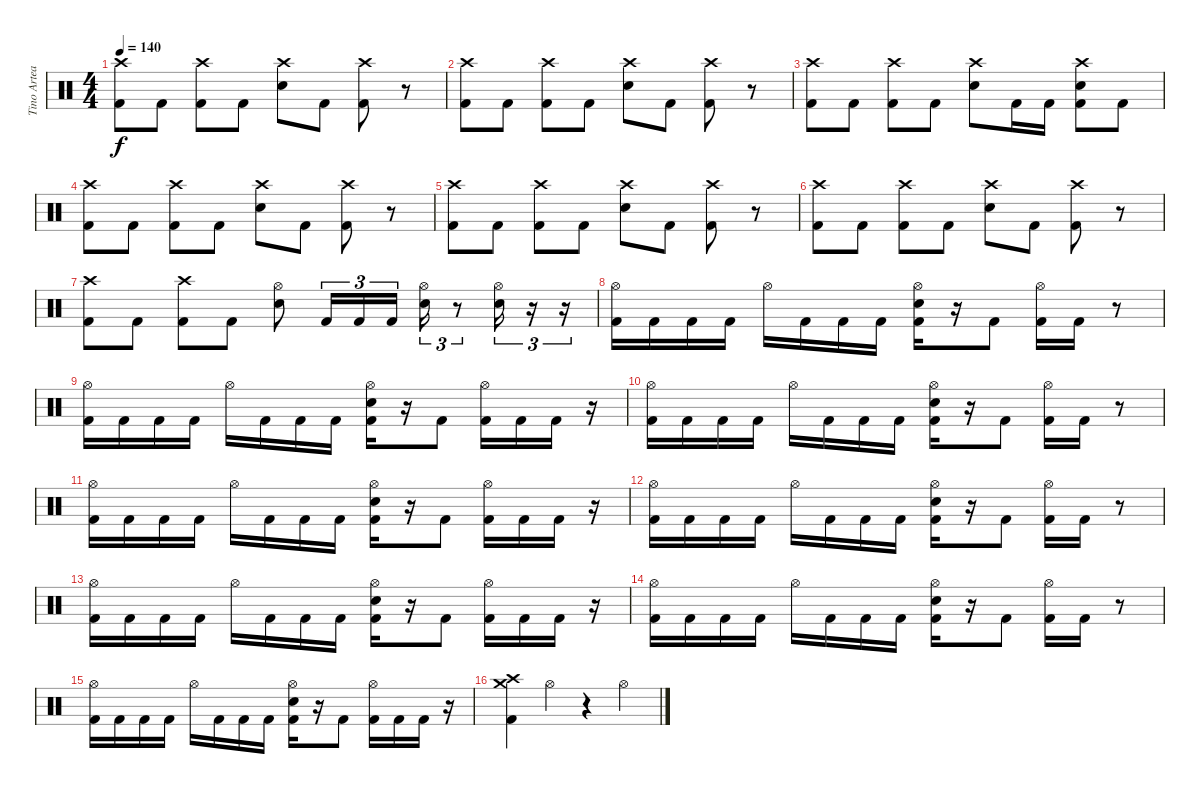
\track ("Tino Arteaga" "Tino Artea") {instrument percussion}
\staff {score}
\articulation defaults
\ts (4 4)
\tempo 140
\clef neutral
\ks c
("Crash high (hit)" "Kick (hit) 2").8{dy f} "Kick (hit) 2".8 ("Crash high (hit)" "Kick (hit) 2").8 "Kick (hit) 2".8 ("Crash high (hit)" "Electric Snare (hit)").8 "Kick (hit) 2".8 ("Crash high (hit)" "Kick (hit) 2").8 r.8 |
("Crash high (hit)" "Kick (hit) 2").8 "Kick (hit) 2".8 ("Crash high (hit)" "Kick (hit) 2").8 "Kick (hit) 2".8 ("Crash high (hit)" "Electric Snare (hit)").8 "Kick (hit) 2".8 ("Crash high (hit)" "Kick (hit) 2").8 r.8 |
("Crash high (hit)" "Kick (hit) 2").8 "Kick (hit) 2".8 ("Crash high (hit)" "Kick (hit) 2").8 "Kick (hit) 2".8 ("Crash high (hit)" "Electric Snare (hit)").8 "Kick (hit) 2".16 "Kick (hit) 2".16 ("Crash high (hit)" "Electric Snare (hit)" "Kick (hit) 2").8 "Kick (hit) 2".8 |
("Crash high (hit)" "Kick (hit) 2").8 "Kick (hit) 2".8 ("Crash high (hit)" "Kick (hit) 2").8 "Kick (hit) 2".8 ("Crash high (hit)" "Electric Snare (hit)").8 "Kick (hit) 2".8 ("Crash high (hit)" "Kick (hit) 2").8 r.8 |
("Crash high (hit)" "Kick (hit) 2").8 "Kick (hit) 2".8 ("Crash high (hit)" "Kick (hit) 2").8 "Kick (hit) 2".8 ("Crash high (hit)" "Electric Snare (hit)").8 "Kick (hit) 2".8 ("Crash high (hit)" "Kick (hit) 2").8 r.8 |
("Crash high (hit)" "Kick (hit) 2").8 "Kick (hit) 2".8 ("Crash high (hit)" "Kick (hit) 2").8 "Kick (hit) 2".8 ("Crash high (hit)" "Electric Snare (hit)").8 "Kick (hit) 2".8 ("Crash high (hit)" "Kick (hit) 2").8 r.8 |
("Crash high (hit)" "Kick (hit) 2").8 "Kick (hit) 2".8 ("Crash high (hit)" "Kick (hit) 2").8 "Kick (hit) 2".8 ("Hi-Hat (open)" "Electric Snare (hit)").8 "Kick (hit) 2".16{tu (3 2)} "Kick (hit) 2".16{tu (3 2)} "Kick (hit) 2".16{tu (3 2)} ("Hi-Hat (open)" "Electric Snare (hit)").16{tu (3 2)} r.8{tu (3 2)} ("Hi-Hat (open)" "Electric Snare (hit)").16{tu (3 2)} r.16{tu (3 2)} r.16{tu (3 2)} |
("Hi-Hat (open)" "Kick (hit) 2").16 "Kick (hit) 2".16 "Kick (hit) 2".16 "Kick (hit) 2".16 "Hi-Hat (open)".16 "Kick (hit) 2".16 "Kick (hit) 2".16 "Kick (hit) 2".16 ("Hi-Hat (open)" "Electric Snare (hit)" "Kick (hit) 2").16 r.16 "Kick (hit) 2".8 ("Hi-Hat (open)" "Kick (hit) 2").16 "Kick (hit) 2".16 r.8 |
("Hi-Hat (open)" "Kick (hit) 2").16 "Kick (hit) 2".16 "Kick (hit) 2".16 "Kick (hit) 2".16 "Hi-Hat (open)".16 "Kick (hit) 2".16 "Kick (hit) 2".16 "Kick (hit) 2".16 ("Hi-Hat (open)" "Electric Snare (hit)" "Kick (hit) 2").16 r.16 "Kick (hit) 2".8 ("Hi-Hat (open)" "Kick (hit) 2").16 "Kick (hit) 2".16 "Kick (hit) 2".16 r.16 |
("Hi-Hat (open)" "Kick (hit) 2").16 "Kick (hit) 2".16 "Kick (hit) 2".16 "Kick (hit) 2".16 "Hi-Hat (open)".16 "Kick (hit) 2".16 "Kick (hit) 2".16 "Kick (hit) 2".16 ("Hi-Hat (open)" "Electric Snare (hit)" "Kick (hit) 2").16 r.16 "Kick (hit) 2".8 ("Hi-Hat (open)" "Kick (hit) 2").16 "Kick (hit) 2".16 r.8 |
("Hi-Hat (open)" "Kick (hit) 2").16 "Kick (hit) 2".16 "Kick (hit) 2".16 "Kick (hit) 2".16 "Hi-Hat (open)".16 "Kick (hit) 2".16 "Kick (hit) 2".16 "Kick (hit) 2".16 ("Hi-Hat (open)" "Electric Snare (hit)" "Kick (hit) 2").16 r.16 "Kick (hit) 2".8 ("Hi-Hat (open)" "Kick (hit) 2").16 "Kick (hit) 2".16 "Kick (hit) 2".16 r.16 |
("Hi-Hat (open)" "Kick (hit) 2").16 "Kick (hit) 2".16 "Kick (hit) 2".16 "Kick (hit) 2".16 "Hi-Hat (open)".16 "Kick (hit) 2".16 "Kick (hit) 2".16 "Kick (hit) 2".16 ("Hi-Hat (open)" "Electric Snare (hit)" "Kick (hit) 2").16 r.16 "Kick (hit) 2".8 ("Hi-Hat (open)" "Kick (hit) 2").16 "Kick (hit) 2".16 r.8 |
("Hi-Hat (open)" "Kick (hit) 2").16 "Kick (hit) 2".16 "Kick (hit) 2".16 "Kick (hit) 2".16 "Hi-Hat (open)".16 "Kick (hit) 2".16 "Kick (hit) 2".16 "Kick (hit) 2".16 ("Hi-Hat (open)" "Electric Snare (hit)" "Kick (hit) 2").16 r.16 "Kick (hit) 2".8 ("Hi-Hat (open)" "Kick (hit) 2").16 "Kick (hit) 2".16 "Kick (hit) 2".16 r.16 |
("Hi-Hat (open)" "Kick (hit) 2").16 "Kick (hit) 2".16 "Kick (hit) 2".16 "Kick (hit) 2".16 "Hi-Hat (open)".16 "Kick (hit) 2".16 "Kick (hit) 2".16 "Kick (hit) 2".16 ("Hi-Hat (open)" "Electric Snare (hit)" "Kick (hit) 2").16 r.16 "Kick (hit) 2".8 ("Hi-Hat (open)" "Kick (hit) 2").16 "Kick (hit) 2".16 r.8 |
("Hi-Hat (open)" "Kick (hit) 2").16 "Kick (hit) 2".16 "Kick (hit) 2".16 "Kick (hit) 2".16 "Hi-Hat (open)".16 "Kick (hit) 2".16 "Kick (hit) 2".16 "Kick (hit) 2".16 ("Hi-Hat (open)" "Electric Snare (hit)" "Kick (hit) 2").16 r.16 "Kick (hit) 2".8 ("Hi-Hat (open)" "Kick (hit) 2").16 "Kick (hit) 2".16 "Kick (hit) 2".16 r.16 |
("Crash medium (hit)" "Crash high (hit)" "Kick (hit) 2").4 "Hi-Hat (open)".4 r.4 "Hi-Hat (open)".4
